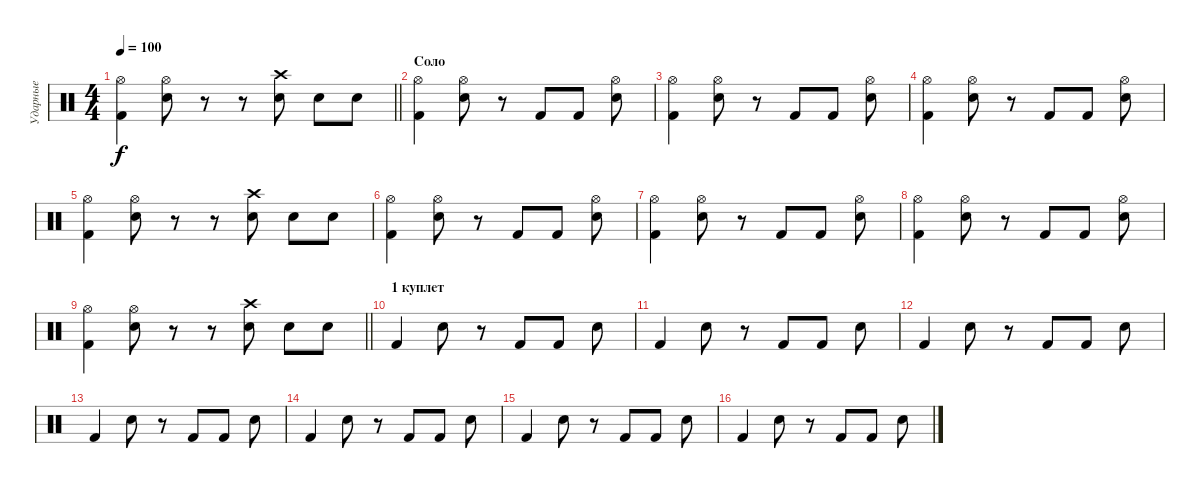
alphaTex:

\track ("Ударные" "Ударные") {instrument percussion}
\staff {score}
\articulation defaults
\ts (4 4)
\tempo 100
\clef neutral
\barLineRight lightlight
\ks c
("Kick (hit) 2" "Hi-Hat (open)").4{dy f} ("Snare (hit) 2" "Hi-Hat (open)").8 r.8 r.8 ("Snare (hit) 2" "Crash high (hit)").8 "Snare (hit) 2".8 "Snare (hit) 2".8 |
\section ("" "Соло")
("Kick (hit) 2" "Hi-Hat (open)").4 ("Snare (hit) 2" "Hi-Hat (open)").8 r.8 "Kick (hit) 2".8 "Kick (hit) 2".8 ("Snare (hit) 2" "Hi-Hat (open)").8 |
("Kick (hit) 2" "Hi-Hat (open)").4 ("Snare (hit) 2" "Hi-Hat (open)").8 r.8 "Kick (hit) 2".8 "Kick (hit) 2".8 ("Snare (hit) 2" "Hi-Hat (open)").8 |
("Kick (hit) 2" "Hi-Hat (open)").4 ("Snare (hit) 2" "Hi-Hat (open)").8 r.8 "Kick (hit) 2".8 "Kick (hit) 2".8 ("Snare (hit) 2" "Hi-Hat (open)").8 |
("Kick (hit) 2" "Hi-Hat (open)").4 ("Snare (hit) 2" "Hi-Hat (open)").8 r.8 r.8 ("Snare (hit) 2" "Crash high (hit)").8 "Snare (hit) 2".8 "Snare (hit) 2".8 |
("Kick (hit) 2" "Hi-Hat (open)").4 ("Snare (hit) 2" "Hi-Hat (open)").8 r.8 "Kick (hit) 2".8 "Kick (hit) 2".8 ("Snare (hit) 2" "Hi-Hat (open)").8 |
("Kick (hit) 2" "Hi-Hat (open)").4 ("Snare (hit) 2" "Hi-Hat (open)").8 r.8 "Kick (hit) 2".8 "Kick (hit) 2".8 ("Snare (hit) 2" "Hi-Hat (open)").8 |
("Kick (hit) 2" "Hi-Hat (open)").4 ("Snare (hit) 2" "Hi-Hat (open)").8 r.8 "Kick (hit) 2".8 "Kick (hit) 2".8 ("Snare (hit) 2" "Hi-Hat (open)").8 |
\barLineRight lightlight
("Kick (hit) 2" "Hi-Hat (open)").4 ("Snare (hit) 2" "Hi-Hat (open)").8 r.8 r.8 ("Snare (hit) 2" "Crash high (hit)").8 "Snare (hit) 2".8 "Snare (hit) 2".8 |
\section ("" "1 куплет")
"Kick (hit) 2".4 "Snare (hit) 2".8 r.8 "Kick (hit) 2".8 "Kick (hit) 2".8 "Snare (hit) 2".8 |
"Kick (hit) 2".4 "Snare (hit) 2".8 r.8 "Kick (hit) 2".8 "Kick (hit) 2".8 "Snare (hit) 2".8 |
"Kick (hit) 2".4 "Snare (hit) 2".8 r.8 "Kick (hit) 2".8 "Kick (hit) 2".8 "Snare (hit) 2".8 |
"Kick (hit) 2".4 "Snare (hit) 2".8 r.8 "Kick (hit) 2".8 "Kick (hit) 2".8 "Snare (hit) 2".8 |
"Kick (hit) 2".4 "Snare (hit) 2".8 r.8 "Kick (hit) 2".8 "Kick (hit) 2".8 "Snare (hit) 2".8 |
"Kick (hit) 2".4 "Snare (hit) 2".8 r.8 "Kick (hit) 2".8 "Kick (hit) 2".8 "Snare (hit) 2".8 |
"Kick (hit) 2".4 "Snare (hit) 2".8 r.8 "Kick (hit) 2".8 "Kick (hit) 2".8 "Snare (hit) 2".8
